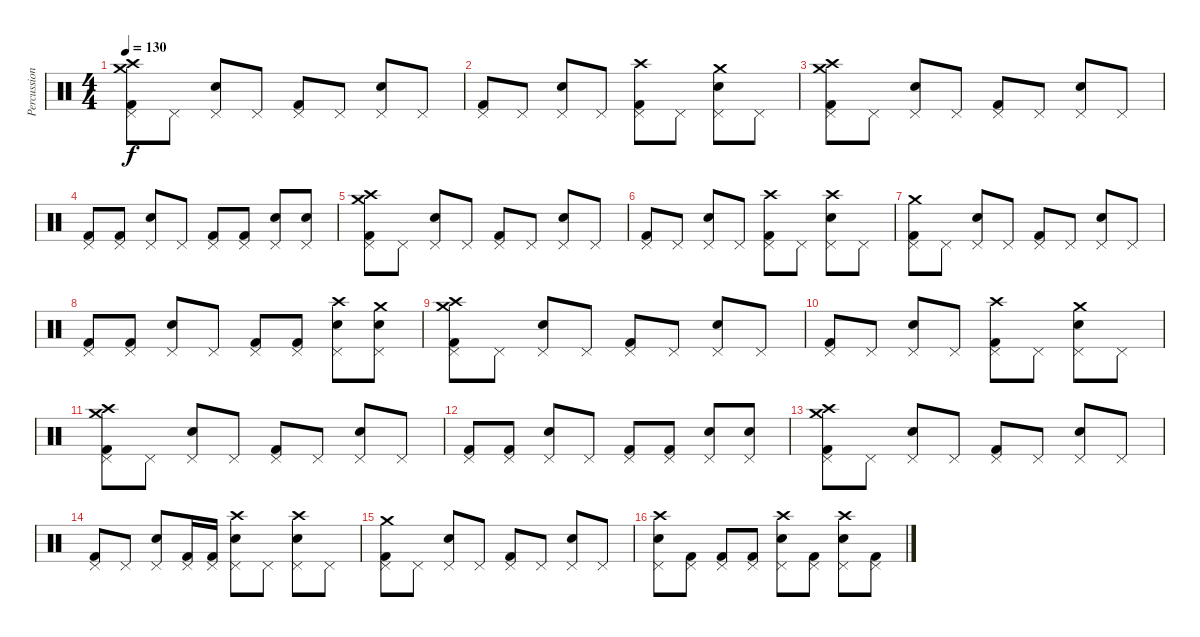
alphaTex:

\track ("Percussion" "Percussion") {instrument percussion}
\staff {score}
\articulation defaults
\ts (4 4)
\tempo 130
\clef neutral
\ks c
("Crash medium (hit)" "Crash high (hit)" "Pedal Hi-Hat (hit)" "Kick (hit) 2").8{dy f} "Pedal Hi-Hat (hit)".8 ("Pedal Hi-Hat (hit)" "Snare (hit) 2").8 "Pedal Hi-Hat (hit)".8 ("Pedal Hi-Hat (hit)" "Kick (hit) 2").8 "Pedal Hi-Hat (hit)".8 ("Pedal Hi-Hat (hit)" "Snare (hit) 2").8 "Pedal Hi-Hat (hit)".8 |
("Pedal Hi-Hat (hit)" "Kick (hit) 2").8 "Pedal Hi-Hat (hit)".8 ("Pedal Hi-Hat (hit)" "Snare (hit) 2").8 "Pedal Hi-Hat (hit)".8 ("Crash high (hit)" "Pedal Hi-Hat (hit)" "Kick (hit) 2").8 "Pedal Hi-Hat (hit)".8 ("Crash medium (hit)" "Pedal Hi-Hat (hit)" "Snare (hit) 2").8 "Pedal Hi-Hat (hit)".8 |
("Crash medium (hit)" "Crash high (hit)" "Pedal Hi-Hat (hit)" "Kick (hit) 2").8 "Pedal Hi-Hat (hit)".8 ("Pedal Hi-Hat (hit)" "Snare (hit) 2").8 "Pedal Hi-Hat (hit)".8 ("Pedal Hi-Hat (hit)" "Kick (hit) 2").8 "Pedal Hi-Hat (hit)".8 ("Pedal Hi-Hat (hit)" "Snare (hit) 2").8 "Pedal Hi-Hat (hit)".8 |
("Pedal Hi-Hat (hit)" "Kick (hit) 2").8 ("Pedal Hi-Hat (hit)" "Kick (hit) 2").8 ("Pedal Hi-Hat (hit)" "Snare (hit) 2").8 "Pedal Hi-Hat (hit)".8 ("Pedal Hi-Hat (hit)" "Kick (hit) 2").8 ("Pedal Hi-Hat (hit)" "Kick (hit) 2").8 ("Pedal Hi-Hat (hit)" "Snare (hit) 2").8 ("Pedal Hi-Hat (hit)" "Snare (hit) 2").8 |
("Crash medium (hit)" "Crash high (hit)" "Pedal Hi-Hat (hit)" "Kick (hit) 2").8 "Pedal Hi-Hat (hit)".8 ("Pedal Hi-Hat (hit)" "Snare (hit) 2").8 "Pedal Hi-Hat (hit)".8 ("Pedal Hi-Hat (hit)" "Kick (hit) 2").8 "Pedal Hi-Hat (hit)".8 ("Pedal Hi-Hat (hit)" "Snare (hit) 2").8 "Pedal Hi-Hat (hit)".8 |
("Pedal Hi-Hat (hit)" "Kick (hit) 2").8 "Pedal Hi-Hat (hit)".8 ("Pedal Hi-Hat (hit)" "Snare (hit) 2").8 "Pedal Hi-Hat (hit)".8 ("Crash high (hit)" "Pedal Hi-Hat (hit)" "Kick (hit) 2").8 "Pedal Hi-Hat (hit)".8 ("Crash high (hit)" "Pedal Hi-Hat (hit)" "Snare (hit) 2").8 "Pedal Hi-Hat (hit)".8 |
("Crash medium (hit)" "Pedal Hi-Hat (hit)" "Kick (hit) 2").8 "Pedal Hi-Hat (hit)".8 ("Pedal Hi-Hat (hit)" "Snare (hit) 2").8 "Pedal Hi-Hat (hit)".8 ("Pedal Hi-Hat (hit)" "Kick (hit) 2").8 "Pedal Hi-Hat (hit)".8 ("Pedal Hi-Hat (hit)" "Snare (hit) 2").8 "Pedal Hi-Hat (hit)".8 |
("Pedal Hi-Hat (hit)" "Kick (hit) 2").8 ("Pedal Hi-Hat (hit)" "Kick (hit) 2").8 ("Pedal Hi-Hat (hit)" "Snare (hit) 2").8 "Pedal Hi-Hat (hit)".8 ("Pedal Hi-Hat (hit)" "Kick (hit) 2").8 ("Pedal Hi-Hat (hit)" "Kick (hit) 2").8 ("Crash high (hit)" "Pedal Hi-Hat (hit)" "Snare (hit) 2").8 ("Crash medium (hit)" "Pedal Hi-Hat (hit)" "Snare (hit) 2").8 |
("Crash medium (hit)" "Crash high (hit)" "Pedal Hi-Hat (hit)" "Kick (hit) 2").8 "Pedal Hi-Hat (hit)".8 ("Pedal Hi-Hat (hit)" "Snare (hit) 2").8 "Pedal Hi-Hat (hit)".8 ("Pedal Hi-Hat (hit)" "Kick (hit) 2").8 "Pedal Hi-Hat (hit)".8 ("Pedal Hi-Hat (hit)" "Snare (hit) 2").8 "Pedal Hi-Hat (hit)".8 |
("Pedal Hi-Hat (hit)" "Kick (hit) 2").8 "Pedal Hi-Hat (hit)".8 ("Pedal Hi-Hat (hit)" "Snare (hit) 2").8 "Pedal Hi-Hat (hit)".8 ("Crash high (hit)" "Pedal Hi-Hat (hit)" "Kick (hit) 2").8 "Pedal Hi-Hat (hit)".8 ("Crash medium (hit)" "Pedal Hi-Hat (hit)" "Snare (hit) 2").8 "Pedal Hi-Hat (hit)".8 |
("Crash medium (hit)" "Crash high (hit)" "Pedal Hi-Hat (hit)" "Kick (hit) 2").8 "Pedal Hi-Hat (hit)".8 ("Pedal Hi-Hat (hit)" "Snare (hit) 2").8 "Pedal Hi-Hat (hit)".8 ("Pedal Hi-Hat (hit)" "Kick (hit) 2").8 "Pedal Hi-Hat (hit)".8 ("Pedal Hi-Hat (hit)" "Snare (hit) 2").8 "Pedal Hi-Hat (hit)".8 |
("Pedal Hi-Hat (hit)" "Kick (hit) 2").8 ("Pedal Hi-Hat (hit)" "Kick (hit) 2").8 ("Pedal Hi-Hat (hit)" "Snare (hit) 2").8 "Pedal Hi-Hat (hit)".8 ("Pedal Hi-Hat (hit)" "Kick (hit) 2").8 ("Pedal Hi-Hat (hit)" "Kick (hit) 2").8 ("Pedal Hi-Hat (hit)" "Snare (hit) 2").8 ("Pedal Hi-Hat (hit)" "Snare (hit) 2").8 |
("Crash medium (hit)" "Crash high (hit)" "Pedal Hi-Hat (hit)" "Kick (hit) 2").8 "Pedal Hi-Hat (hit)".8 ("Pedal Hi-Hat (hit)" "Snare (hit) 2").8 "Pedal Hi-Hat (hit)".8 ("Pedal Hi-Hat (hit)" "Kick (hit) 2").8 "Pedal Hi-Hat (hit)".8 ("Pedal Hi-Hat (hit)" "Snare (hit) 2").8 "Pedal Hi-Hat (hit)".8 |
("Pedal Hi-Hat (hit)" "Kick (hit) 2").8 "Pedal Hi-Hat (hit)".8 ("Pedal Hi-Hat (hit)" "Snare (hit) 2").8 ("Pedal Hi-Hat (hit)" "Kick (hit) 2").16 ("Pedal Hi-Hat (hit)" "Kick (hit) 2").16 ("Crash high (hit)" "Pedal Hi-Hat (hit)" "Snare (hit) 2").8 "Pedal Hi-Hat (hit)".8 ("Crash high (hit)" "Pedal Hi-Hat (hit)" "Snare (hit) 2").8 "Pedal Hi-Hat (hit)".8 |
("Crash medium (hit)" "Pedal Hi-Hat (hit)" "Kick (hit) 2").8 "Pedal Hi-Hat (hit)".8 ("Pedal Hi-Hat (hit)" "Snare (hit) 2").8 "Pedal Hi-Hat (hit)".8 ("Pedal Hi-Hat (hit)" "Kick (hit) 2").8 "Pedal Hi-Hat (hit)".8 ("Pedal Hi-Hat (hit)" "Snare (hit) 2").8 "Pedal Hi-Hat (hit)".8 |
("Crash high (hit)" "Pedal Hi-Hat (hit)" "Snare (hit) 2").8 ("Pedal Hi-Hat (hit)" "Kick (hit) 2").8 ("Pedal Hi-Hat (hit)" "Kick (hit) 2").8 ("Pedal Hi-Hat (hit)" "Kick (hit) 2").8 ("Crash high (hit)" "Pedal Hi-Hat (hit)" "Snare (hit) 2").8 ("Pedal Hi-Hat (hit)" "Kick (hit) 2").8 ("Crash high (hit)" "Pedal Hi-Hat (hit)" "Snare (hit) 2").8 ("Pedal Hi-Hat (hit)" "Kick (hit) 2").8
